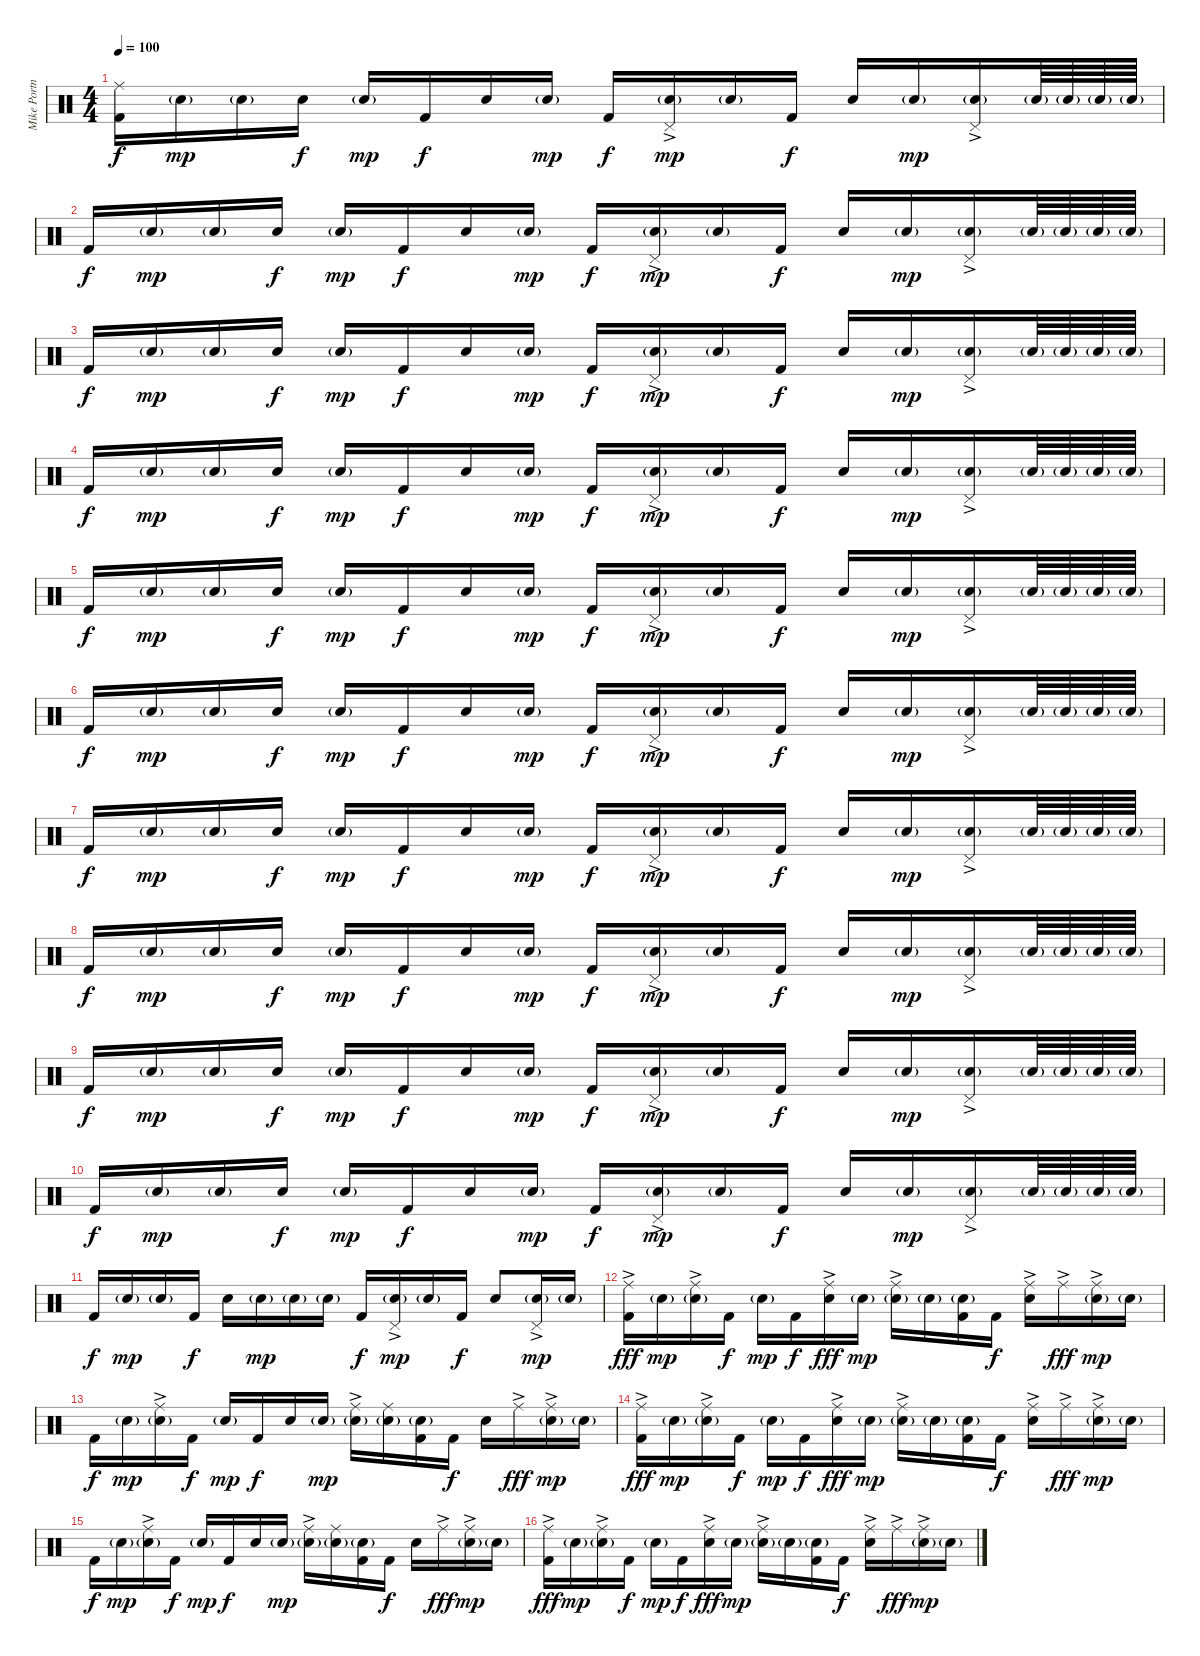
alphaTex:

\track ("Mike Portnoy" "Mike Portn") {instrument percussion}
\staff {score}
\articulation defaults
\ts (4 4)
\tempo 100
\clef neutral
\ks c
("Ride (middle)" "Kick (hit) 2").16{dy f volume 16} "Electric Snare (hit)"{g}.16{dy mp volume 8} "Electric Snare (hit)"{g}.16 "Electric Snare (hit)".16{dy f volume 16} "Electric Snare (hit)"{g}.16{dy mp volume 8} "Kick (hit) 2".16{dy f volume 16} "Electric Snare (hit)".16 "Electric Snare (hit)"{g}.16{dy mp volume 8} "Kick (hit) 2".16{dy f volume 16} ("Pedal Hi-Hat (hit)"{ac} "Electric Snare (hit)"{g}).16{dy mp volume 8} "Electric Snare (hit)"{g}.16 "Kick (hit) 2".16{dy f volume 16} "Electric Snare (hit)".16 "Electric Snare (hit)"{g}.16{dy mp volume 8} ("Pedal Hi-Hat (hit)"{ac} "Electric Snare (hit)"{g}).16 "Electric Snare (hit)"{g}.64 "Electric Snare (hit)"{g}.64 "Electric Snare (hit)"{g}.64 "Electric Snare (hit)"{g}.64 |
"Kick (hit) 2".16{dy f volume 16} "Electric Snare (hit)"{g}.16{dy mp volume 8} "Electric Snare (hit)"{g}.16 "Electric Snare (hit)".16{dy f volume 16} "Electric Snare (hit)"{g}.16{dy mp volume 8} "Kick (hit) 2".16{dy f volume 16} "Electric Snare (hit)".16 "Electric Snare (hit)"{g}.16{dy mp volume 8} "Kick (hit) 2".16{dy f volume 16} ("Pedal Hi-Hat (hit)"{ac} "Electric Snare (hit)"{g}).16{dy mp volume 8} "Electric Snare (hit)"{g}.16 "Kick (hit) 2".16{dy f volume 16} "Electric Snare (hit)".16 "Electric Snare (hit)"{g}.16{dy mp volume 8} ("Pedal Hi-Hat (hit)"{ac} "Electric Snare (hit)"{g}).16 "Electric Snare (hit)"{g}.64 "Electric Snare (hit)"{g}.64 "Electric Snare (hit)"{g}.64 "Electric Snare (hit)"{g}.64 |
"Kick (hit) 2".16{dy f volume 16} "Electric Snare (hit)"{g}.16{dy mp volume 8} "Electric Snare (hit)"{g}.16 "Electric Snare (hit)".16{dy f volume 16} "Electric Snare (hit)"{g}.16{dy mp volume 8} "Kick (hit) 2".16{dy f volume 16} "Electric Snare (hit)".16 "Electric Snare (hit)"{g}.16{dy mp volume 8} "Kick (hit) 2".16{dy f volume 16} ("Pedal Hi-Hat (hit)"{ac} "Electric Snare (hit)"{g}).16{dy mp volume 8} "Electric Snare (hit)"{g}.16 "Kick (hit) 2".16{dy f volume 16} "Electric Snare (hit)".16 "Electric Snare (hit)"{g}.16{dy mp volume 8} ("Pedal Hi-Hat (hit)"{ac} "Electric Snare (hit)"{g}).16 "Electric Snare (hit)"{g}.64 "Electric Snare (hit)"{g}.64 "Electric Snare (hit)"{g}.64 "Electric Snare (hit)"{g}.64 |
"Kick (hit) 2".16{dy f volume 16} "Electric Snare (hit)"{g}.16{dy mp volume 8} "Electric Snare (hit)"{g}.16 "Electric Snare (hit)".16{dy f volume 16} "Electric Snare (hit)"{g}.16{dy mp volume 8} "Kick (hit) 2".16{dy f volume 16} "Electric Snare (hit)".16 "Electric Snare (hit)"{g}.16{dy mp volume 8} "Kick (hit) 2".16{dy f volume 16} ("Pedal Hi-Hat (hit)"{ac} "Electric Snare (hit)"{g}).16{dy mp volume 8} "Electric Snare (hit)"{g}.16 "Kick (hit) 2".16{dy f volume 16} "Electric Snare (hit)".16 "Electric Snare (hit)"{g}.16{dy mp volume 8} ("Pedal Hi-Hat (hit)"{ac} "Electric Snare (hit)"{g}).16 "Electric Snare (hit)"{g}.64 "Electric Snare (hit)"{g}.64 "Electric Snare (hit)"{g}.64 "Electric Snare (hit)"{g}.64 |
"Kick (hit) 2".16{dy f volume 16} "Electric Snare (hit)"{g}.16{dy mp volume 8} "Electric Snare (hit)"{g}.16 "Electric Snare (hit)".16{dy f volume 16} "Electric Snare (hit)"{g}.16{dy mp volume 8} "Kick (hit) 2".16{dy f volume 16} "Electric Snare (hit)".16 "Electric Snare (hit)"{g}.16{dy mp volume 8} "Kick (hit) 2".16{dy f volume 16} ("Pedal Hi-Hat (hit)"{ac} "Electric Snare (hit)"{g}).16{dy mp volume 8} "Electric Snare (hit)"{g}.16 "Kick (hit) 2".16{dy f volume 16} "Electric Snare (hit)".16 "Electric Snare (hit)"{g}.16{dy mp volume 8} ("Pedal Hi-Hat (hit)"{ac} "Electric Snare (hit)"{g}).16 "Electric Snare (hit)"{g}.64 "Electric Snare (hit)"{g}.64 "Electric Snare (hit)"{g}.64 "Electric Snare (hit)"{g}.64 |
"Kick (hit) 2".16{dy f volume 16} "Electric Snare (hit)"{g}.16{dy mp volume 8} "Electric Snare (hit)"{g}.16 "Electric Snare (hit)".16{dy f volume 16} "Electric Snare (hit)"{g}.16{dy mp volume 8} "Kick (hit) 2".16{dy f volume 16} "Electric Snare (hit)".16 "Electric Snare (hit)"{g}.16{dy mp volume 8} "Kick (hit) 2".16{dy f volume 16} ("Pedal Hi-Hat (hit)"{ac} "Electric Snare (hit)"{g}).16{dy mp volume 8} "Electric Snare (hit)"{g}.16 "Kick (hit) 2".16{dy f volume 16} "Electric Snare (hit)".16 "Electric Snare (hit)"{g}.16{dy mp volume 8} ("Pedal Hi-Hat (hit)"{ac} "Electric Snare (hit)"{g}).16 "Electric Snare (hit)"{g}.64 "Electric Snare (hit)"{g}.64 "Electric Snare (hit)"{g}.64 "Electric Snare (hit)"{g}.64 |
"Kick (hit) 2".16{dy f volume 16} "Electric Snare (hit)"{g}.16{dy mp volume 8} "Electric Snare (hit)"{g}.16 "Electric Snare (hit)".16{dy f volume 16} "Electric Snare (hit)"{g}.16{dy mp volume 8} "Kick (hit) 2".16{dy f volume 16} "Electric Snare (hit)".16 "Electric Snare (hit)"{g}.16{dy mp volume 8} "Kick (hit) 2".16{dy f volume 16} ("Pedal Hi-Hat (hit)"{ac} "Electric Snare (hit)"{g}).16{dy mp volume 8} "Electric Snare (hit)"{g}.16 "Kick (hit) 2".16{dy f volume 16} "Electric Snare (hit)".16 "Electric Snare (hit)"{g}.16{dy mp volume 8} ("Pedal Hi-Hat (hit)"{ac} "Electric Snare (hit)"{g}).16 "Electric Snare (hit)"{g}.64 "Electric Snare (hit)"{g}.64 "Electric Snare (hit)"{g}.64 "Electric Snare (hit)"{g}.64 |
"Kick (hit) 2".16{dy f volume 16} "Electric Snare (hit)"{g}.16{dy mp volume 8} "Electric Snare (hit)"{g}.16 "Electric Snare (hit)".16{dy f volume 16} "Electric Snare (hit)"{g}.16{dy mp volume 8} "Kick (hit) 2".16{dy f volume 16} "Electric Snare (hit)".16 "Electric Snare (hit)"{g}.16{dy mp volume 8} "Kick (hit) 2".16{dy f volume 16} ("Pedal Hi-Hat (hit)"{ac} "Electric Snare (hit)"{g}).16{dy mp volume 8} "Electric Snare (hit)"{g}.16 "Kick (hit) 2".16{dy f volume 16} "Electric Snare (hit)".16 "Electric Snare (hit)"{g}.16{dy mp volume 8} ("Pedal Hi-Hat (hit)"{ac} "Electric Snare (hit)"{g}).16 "Electric Snare (hit)"{g}.64 "Electric Snare (hit)"{g}.64 "Electric Snare (hit)"{g}.64 "Electric Snare (hit)"{g}.64 |
"Kick (hit) 2".16{dy f volume 16} "Electric Snare (hit)"{g}.16{dy mp volume 8} "Electric Snare (hit)"{g}.16 "Electric Snare (hit)".16{dy f volume 16} "Electric Snare (hit)"{g}.16{dy mp volume 8} "Kick (hit) 2".16{dy f volume 16} "Electric Snare (hit)".16 "Electric Snare (hit)"{g}.16{dy mp volume 8} "Kick (hit) 2".16{dy f volume 16} ("Pedal Hi-Hat (hit)"{ac} "Electric Snare (hit)"{g}).16{dy mp volume 8} "Electric Snare (hit)"{g}.16 "Kick (hit) 2".16{dy f volume 16} "Electric Snare (hit)".16 "Electric Snare (hit)"{g}.16{dy mp volume 8} ("Pedal Hi-Hat (hit)"{ac} "Electric Snare (hit)"{g}).16 "Electric Snare (hit)"{g}.64 "Electric Snare (hit)"{g}.64 "Electric Snare (hit)"{g}.64 "Electric Snare (hit)"{g}.64 |
"Kick (hit) 2".16{dy f volume 16} "Electric Snare (hit)"{g}.16{dy mp volume 8} "Electric Snare (hit)"{g}.16 "Electric Snare (hit)".16{dy f volume 16} "Electric Snare (hit)"{g}.16{dy mp volume 8} "Kick (hit) 2".16{dy f volume 16} "Electric Snare (hit)".16 "Electric Snare (hit)"{g}.16{dy mp volume 8} "Kick (hit) 2".16{dy f volume 16} ("Pedal Hi-Hat (hit)"{ac} "Electric Snare (hit)"{g}).16{dy mp volume 8} "Electric Snare (hit)"{g}.16 "Kick (hit) 2".16{dy f volume 16} "Electric Snare (hit)".16 "Electric Snare (hit)"{g}.16{dy mp volume 8} ("Pedal Hi-Hat (hit)"{ac} "Electric Snare (hit)"{g}).16 "Electric Snare (hit)"{g}.64 "Electric Snare (hit)"{g}.64 "Electric Snare (hit)"{g}.64 "Electric Snare (hit)"{g}.64 |
"Kick (hit) 2".16{dy f volume 16} "Electric Snare (hit)"{g}.16{dy mp volume 8} "Electric Snare (hit)"{g}.16 "Kick (hit) 2".16{dy f volume 16} "Electric Snare (hit)".16 "Electric Snare (hit)"{g}.16{dy mp volume 8} "Electric Snare (hit)"{g}.16 "Electric Snare (hit)"{g}.16{volume 8} "Kick (hit) 2".16{dy f volume 16} ("Pedal Hi-Hat (hit)"{ac} "Electric Snare (hit)"{g}).16{dy mp volume 8} "Electric Snare (hit)"{g}.16 "Kick (hit) 2".16{dy f volume 16} "Electric Snare (hit)".8 ("Pedal Hi-Hat (hit)"{ac} "Electric Snare (hit)"{g}).16{dy mp volume 8} "Electric Snare (hit)"{g}.16 |
("Ride (middle)"{ac} "Kick (hit) 2").16{dy fff volume 16} "Electric Snare (hit)"{g}.16{dy mp volume 8} ("Ride (middle)"{ac} "Electric Snare (hit)"{g}).16 "Kick (hit) 2".16{dy f volume 16} "Electric Snare (hit)"{g}.16{dy mp volume 8} "Kick (hit) 2".16{dy f volume 16} ("Ride (middle)"{ac} "Electric Snare (hit)").16{dy fff} "Electric Snare (hit)"{g}.16{dy mp volume 8} ("Ride (middle)"{ac} "Electric Snare (hit)"{g}).16 "Electric Snare (hit)"{g}.16{volume 8} ("Electric Snare (hit)"{g} "Kick (hit) 2").16 "Kick (hit) 2".16{dy f volume 16} ("Ride (middle)"{ac} "Electric Snare (hit)").16 "Ride (middle)"{ac}.16{dy fff} ("Ride (middle)"{ac} "Electric Snare (hit)"{g}).16{dy mp} "Electric Snare (hit)"{g}.16 |
"Kick (hit) 2".16{dy f volume 16} "Electric Snare (hit)"{g}.16{dy mp volume 8} ("Ride (middle)"{ac} "Electric Snare (hit)"{g}).16 "Kick (hit) 2".16{dy f volume 16} "Electric Snare (hit)"{g}.16{dy mp volume 8} "Kick (hit) 2".16{dy f volume 16} "Electric Snare (hit)".16 "Electric Snare (hit)"{g}.16{dy mp volume 8} ("Ride (middle)"{ac} "Electric Snare (hit)"{g}).16 ("Ride (middle)" "Electric Snare (hit)"{g}).16{volume 8} ("Electric Snare (hit)"{g} "Kick (hit) 2").16 "Kick (hit) 2".16{dy f volume 16} "Electric Snare (hit)".16 "Ride (middle)"{ac}.16{dy fff} ("Ride (middle)"{ac} "Electric Snare (hit)"{g}).16{dy mp} "Electric Snare (hit)"{g}.16 |
("Ride (middle)"{ac} "Kick (hit) 2").16{dy fff volume 16} "Electric Snare (hit)"{g}.16{dy mp volume 8} ("Ride (middle)"{ac} "Electric Snare (hit)"{g}).16 "Kick (hit) 2".16{dy f volume 16} "Electric Snare (hit)"{g}.16{dy mp volume 8} "Kick (hit) 2".16{dy f volume 16} ("Ride (middle)"{ac} "Electric Snare (hit)").16{dy fff} "Electric Snare (hit)"{g}.16{dy mp volume 8} ("Ride (middle)"{ac} "Electric Snare (hit)"{g}).16 "Electric Snare (hit)"{g}.16{volume 8} ("Electric Snare (hit)"{g} "Kick (hit) 2").16 "Kick (hit) 2".16{dy f volume 16} ("Ride (middle)"{ac} "Electric Snare (hit)").16 "Ride (middle)"{ac}.16{dy fff} ("Ride (middle)"{ac} "Electric Snare (hit)"{g}).16{dy mp} "Electric Snare (hit)"{g}.16 |
"Kick (hit) 2".16{dy f volume 16} "Electric Snare (hit)"{g}.16{dy mp volume 8} ("Ride (middle)"{ac} "Electric Snare (hit)"{g}).16 "Kick (hit) 2".16{dy f volume 16} "Electric Snare (hit)"{g}.16{dy mp volume 8} "Kick (hit) 2".16{dy f volume 16} "Electric Snare (hit)".16 "Electric Snare (hit)"{g}.16{dy mp volume 8} ("Ride (middle)"{ac} "Electric Snare (hit)"{g}).16 ("Ride (middle)" "Electric Snare (hit)"{g}).16{volume 8} ("Electric Snare (hit)"{g} "Kick (hit) 2").16 "Kick (hit) 2".16{dy f volume 16} "Electric Snare (hit)".16 "Ride (middle)"{ac}.16{dy fff} ("Ride (middle)"{ac} "Electric Snare (hit)"{g}).16{dy mp} "Electric Snare (hit)"{g}.16 |
("Ride (middle)"{ac} "Kick (hit) 2").16{dy fff volume 16} "Electric Snare (hit)"{g}.16{dy mp volume 8} ("Ride (middle)"{ac} "Electric Snare (hit)"{g}).16 "Kick (hit) 2".16{dy f volume 16} "Electric Snare (hit)"{g}.16{dy mp volume 8} "Kick (hit) 2".16{dy f volume 16} ("Ride (middle)"{ac} "Electric Snare (hit)").16{dy fff} "Electric Snare (hit)"{g}.16{dy mp volume 8} ("Ride (middle)"{ac} "Electric Snare (hit)"{g}).16 "Electric Snare (hit)"{g}.16{volume 8} ("Electric Snare (hit)"{g} "Kick (hit) 2").16 "Kick (hit) 2".16{dy f volume 16} ("Ride (middle)"{ac} "Electric Snare (hit)").16 "Ride (middle)"{ac}.16{dy fff} ("Ride (middle)"{ac} "Electric Snare (hit)"{g}).16{dy mp} "Electric Snare (hit)"{g}.16
